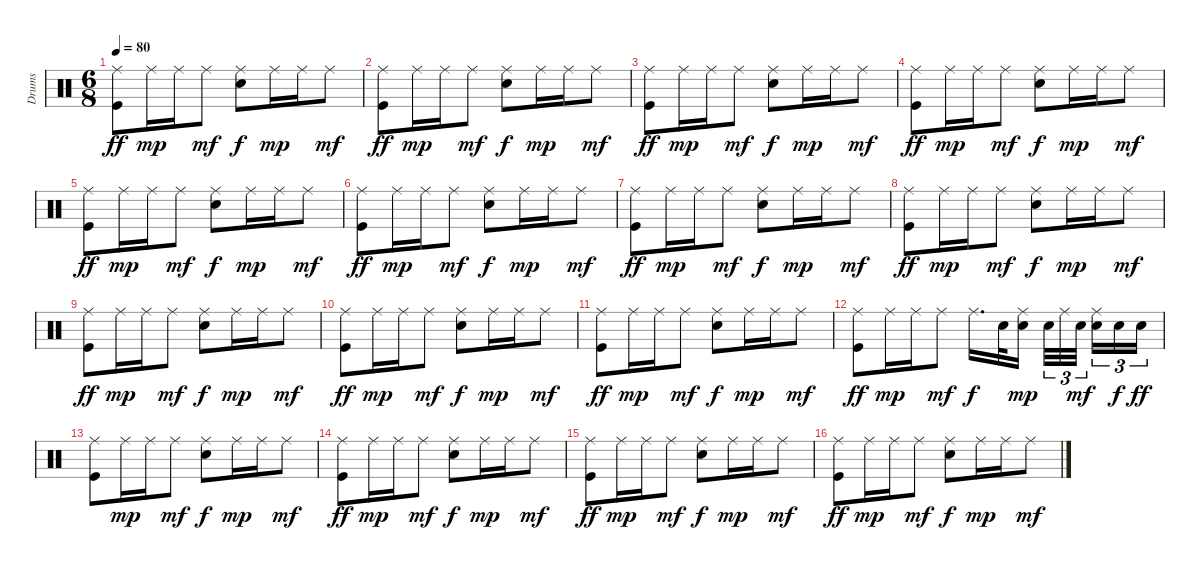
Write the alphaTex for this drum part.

\track ("Drums" "Drums") {instrument percussion}
\staff {score}
\articulation defaults
\ts (6 8)
\tempo 80
\clef neutral
\ks c
("Kick (hit)" "Ride (middle)").8{dy ff} "Ride (middle)".16{dy mp} "Ride (middle)".16 "Ride (middle)".8{dy mf} ("Ride (middle)" "Snare (hit) 2").8{dy f} "Ride (middle)".16{dy mp} "Ride (middle)".16 "Ride (middle)".8{dy mf} |
("Kick (hit)" "Ride (middle)").8{dy ff} "Ride (middle)".16{dy mp} "Ride (middle)".16 "Ride (middle)".8{dy mf} ("Ride (middle)" "Snare (hit) 2").8{dy f} "Ride (middle)".16{dy mp} "Ride (middle)".16 "Ride (middle)".8{dy mf} |
("Kick (hit)" "Ride (middle)").8{dy ff} "Ride (middle)".16{dy mp} "Ride (middle)".16 "Ride (middle)".8{dy mf} ("Ride (middle)" "Snare (hit) 2").8{dy f} "Ride (middle)".16{dy mp} "Ride (middle)".16 "Ride (middle)".8{dy mf} |
("Kick (hit)" "Ride (middle)").8{dy ff} "Ride (middle)".16{dy mp} "Ride (middle)".16 "Ride (middle)".8{dy mf} ("Ride (middle)" "Snare (hit) 2").8{dy f} "Ride (middle)".16{dy mp} "Ride (middle)".16 "Ride (middle)".8{dy mf} |
("Kick (hit)" "Ride (middle)").8{dy ff} "Ride (middle)".16{dy mp} "Ride (middle)".16 "Ride (middle)".8{dy mf} ("Ride (middle)" "Snare (hit) 2").8{dy f} "Ride (middle)".16{dy mp} "Ride (middle)".16 "Ride (middle)".8{dy mf} |
("Kick (hit)" "Ride (middle)").8{dy ff} "Ride (middle)".16{dy mp} "Ride (middle)".16 "Ride (middle)".8{dy mf} ("Ride (middle)" "Snare (hit) 2").8{dy f} "Ride (middle)".16{dy mp} "Ride (middle)".16 "Ride (middle)".8{dy mf} |
("Kick (hit)" "Ride (middle)").8{dy ff} "Ride (middle)".16{dy mp} "Ride (middle)".16 "Ride (middle)".8{dy mf} ("Ride (middle)" "Snare (hit) 2").8{dy f} "Ride (middle)".16{dy mp} "Ride (middle)".16 "Ride (middle)".8{dy mf} |
("Kick (hit)" "Ride (middle)").8{dy ff} "Ride (middle)".16{dy mp} "Ride (middle)".16 "Ride (middle)".8{dy mf} ("Ride (middle)" "Snare (hit) 2").8{dy f} "Ride (middle)".16{dy mp} "Ride (middle)".16 "Ride (middle)".8{dy mf} |
("Kick (hit)" "Ride (middle)").8{dy ff} "Ride (middle)".16{dy mp} "Ride (middle)".16 "Ride (middle)".8{dy mf} ("Ride (middle)" "Snare (hit) 2").8{dy f} "Ride (middle)".16{dy mp} "Ride (middle)".16 "Ride (middle)".8{dy mf} |
("Kick (hit)" "Ride (middle)").8{dy ff} "Ride (middle)".16{dy mp} "Ride (middle)".16 "Ride (middle)".8{dy mf} ("Ride (middle)" "Snare (hit) 2").8{dy f} "Ride (middle)".16{dy mp} "Ride (middle)".16 "Ride (middle)".8{dy mf} |
("Kick (hit)" "Ride (middle)").8{dy ff} "Ride (middle)".16{dy mp} "Ride (middle)".16 "Ride (middle)".8{dy mf} ("Ride (middle)" "Snare (hit) 2").8{dy f} "Ride (middle)".16{dy mp} "Ride (middle)".16 "Ride (middle)".8{dy mf} |
("Kick (hit)" "Ride (middle)").8{dy ff} "Ride (middle)".16{dy mp} "Ride (middle)".16 "Ride (middle)".8{dy mf} "Ride (middle)".16{d dy f} "Snare (hit) 2".32 ("Ride (middle)" "Snare (hit) 2").16{dy mp} "Snare (hit) 2".32{tu (3 2)} "Ride (middle)".32{tu (3 2)} "Snare (hit) 2".32{tu (3 2) dy mf} ("Ride (middle)" "Snare (hit) 2").16{tu (3 2)} "Snare (hit) 2".16{tu (3 2) dy f} "Snare (hit) 2".16{tu (3 2) dy ff} |
("Kick (hit)" "Ride (middle)").8 "Ride (middle)".16{dy mp} "Ride (middle)".16 "Ride (middle)".8{dy mf} ("Ride (middle)" "Snare (hit) 2").8{dy f} "Ride (middle)".16{dy mp} "Ride (middle)".16 "Ride (middle)".8{dy mf} |
("Kick (hit)" "Ride (middle)").8{dy ff} "Ride (middle)".16{dy mp} "Ride (middle)".16 "Ride (middle)".8{dy mf} ("Ride (middle)" "Snare (hit) 2").8{dy f} "Ride (middle)".16{dy mp} "Ride (middle)".16 "Ride (middle)".8{dy mf} |
("Kick (hit)" "Ride (middle)").8{dy ff} "Ride (middle)".16{dy mp} "Ride (middle)".16 "Ride (middle)".8{dy mf} ("Ride (middle)" "Snare (hit) 2").8{dy f} "Ride (middle)".16{dy mp} "Ride (middle)".16 "Ride (middle)".8{dy mf} |
("Kick (hit)" "Ride (middle)").8{dy ff} "Ride (middle)".16{dy mp} "Ride (middle)".16 "Ride (middle)".8{dy mf} ("Ride (middle)" "Snare (hit) 2").8{dy f} "Ride (middle)".16{dy mp} "Ride (middle)".16 "Ride (middle)".8{dy mf}
